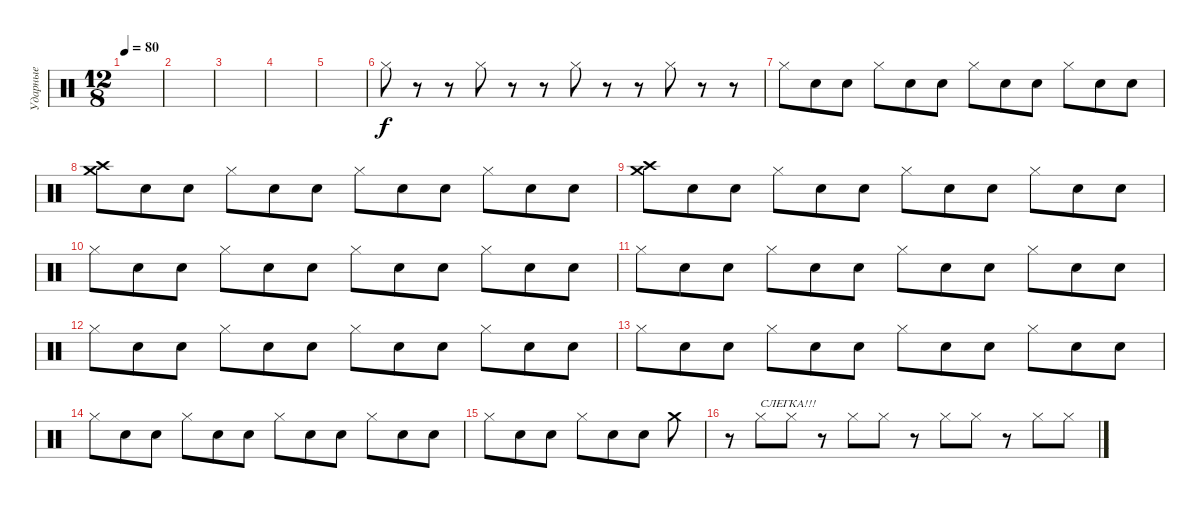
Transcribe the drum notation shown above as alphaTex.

\track ("Ударные" "Ударные") {instrument percussion}
\staff {score}
\articulation defaults
\ts (12 8)
\tempo 80
\clef neutral
\ks c
|
|
|
|
|
"Hi-Hat (closed)".8 r.8 r.8 "Hi-Hat (closed)".8 r.8 r.8 "Hi-Hat (closed)".8 r.8 r.8 "Hi-Hat (closed)".8 r.8 r.8 |
"Hi-Hat (closed)".8 "Electric Snare (hit)".8 "Electric Snare (hit)".8 "Hi-Hat (closed)".8 "Electric Snare (hit)".8 "Electric Snare (hit)".8 "Hi-Hat (closed)".8 "Electric Snare (hit)".8 "Electric Snare (hit)".8 "Hi-Hat (closed)".8 "Electric Snare (hit)".8 "Electric Snare (hit)".8 |
("Crash high (hit)" "Crash medium (hit)").8 "Electric Snare (hit)".8 "Electric Snare (hit)".8 "Hi-Hat (closed)".8 "Electric Snare (hit)".8 "Electric Snare (hit)".8 "Hi-Hat (closed)".8 "Electric Snare (hit)".8 "Electric Snare (hit)".8 "Hi-Hat (closed)".8 "Electric Snare (hit)".8 "Electric Snare (hit)".8 |
("Crash high (hit)" "Crash medium (hit)").8 "Electric Snare (hit)".8 "Electric Snare (hit)".8 "Hi-Hat (closed)".8 "Electric Snare (hit)".8 "Electric Snare (hit)".8 "Hi-Hat (closed)".8 "Electric Snare (hit)".8 "Electric Snare (hit)".8 "Hi-Hat (closed)".8 "Electric Snare (hit)".8 "Electric Snare (hit)".8 |
"Hi-Hat (closed)".8 "Electric Snare (hit)".8 "Electric Snare (hit)".8 "Hi-Hat (closed)".8 "Electric Snare (hit)".8 "Electric Snare (hit)".8 "Hi-Hat (closed)".8 "Electric Snare (hit)".8 "Electric Snare (hit)".8 "Hi-Hat (closed)".8 "Electric Snare (hit)".8 "Electric Snare (hit)".8 |
"Hi-Hat (closed)".8 "Electric Snare (hit)".8 "Electric Snare (hit)".8 "Hi-Hat (closed)".8 "Electric Snare (hit)".8 "Electric Snare (hit)".8 "Hi-Hat (closed)".8 "Electric Snare (hit)".8 "Electric Snare (hit)".8 "Hi-Hat (closed)".8 "Electric Snare (hit)".8 "Electric Snare (hit)".8 |
"Hi-Hat (closed)".8 "Electric Snare (hit)".8 "Electric Snare (hit)".8 "Hi-Hat (closed)".8 "Electric Snare (hit)".8 "Electric Snare (hit)".8 "Hi-Hat (closed)".8 "Electric Snare (hit)".8 "Electric Snare (hit)".8 "Hi-Hat (closed)".8 "Electric Snare (hit)".8 "Electric Snare (hit)".8 |
"Hi-Hat (closed)".8 "Electric Snare (hit)".8 "Electric Snare (hit)".8 "Hi-Hat (closed)".8 "Electric Snare (hit)".8 "Electric Snare (hit)".8 "Hi-Hat (closed)".8 "Electric Snare (hit)".8 "Electric Snare (hit)".8 "Hi-Hat (closed)".8 "Electric Snare (hit)".8 "Electric Snare (hit)".8 |
"Hi-Hat (closed)".8 "Electric Snare (hit)".8 "Electric Snare (hit)".8 "Hi-Hat (closed)".8 "Electric Snare (hit)".8 "Electric Snare (hit)".8 "Hi-Hat (closed)".8 "Electric Snare (hit)".8 "Electric Snare (hit)".8 "Hi-Hat (closed)".8 "Electric Snare (hit)".8 "Electric Snare (hit)".8 |
"Hi-Hat (closed)".8 "Electric Snare (hit)".8 "Electric Snare (hit)".8 "Hi-Hat (closed)".8 "Electric Snare (hit)".8 "Electric Snare (hit)".8 "Crash medium (hit)".8 |
r.8 "Hi-Hat (closed)".8{txt "СЛЕГКА!!!"} "Hi-Hat (closed)".8 r.8 "Hi-Hat (closed)".8 "Hi-Hat (closed)".8 r.8 "Hi-Hat (closed)".8 "Hi-Hat (closed)".8 r.8 "Hi-Hat (closed)".8 "Hi-Hat (closed)".8
